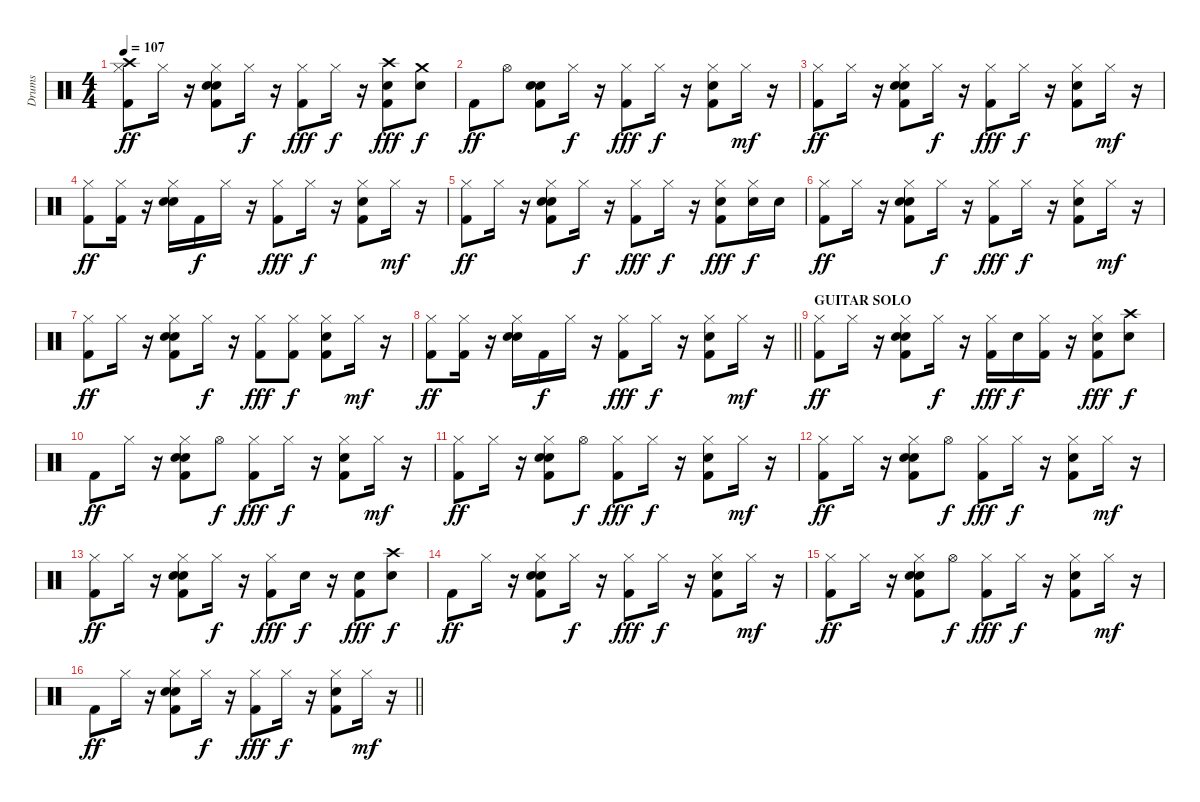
\track ("Drums" "Drums") {instrument percussion}
\staff {score}
\articulation defaults
\ts (4 4)
\tempo 107
\clef neutral
\ks c
("Kick (hit) 2" "Hi-Hat (closed)" "Crash high (hit)").8{dy ff} "Hi-Hat (closed)".16 r.16 ("Kick (hit) 2" "Electric Snare (hit)" "Electric Snare (hit)" "Hi-Hat (closed)").8 "Hi-Hat (closed)".16{dy f} r.16 ("Kick (hit) 2" "Hi-Hat (closed)").8{dy fff} "Hi-Hat (closed)".16{dy f} r.16 ("Kick (hit) 2" "Electric Snare (hit)" "Crash high (hit)").8{dy fff} ("Electric Snare (hit)" "Crash medium (hit)").8{dy f} |
"Kick (hit) 2".8{dy ff} "Hi-Hat (open)".8 ("Kick (hit) 2" "Electric Snare (hit)" "Electric Snare (hit)").8 "Hi-Hat (closed)".16{dy f} r.16 ("Kick (hit) 2" "Hi-Hat (closed)").8{dy fff} "Hi-Hat (closed)".16{dy f} r.16 ("Kick (hit) 2" "Electric Snare (hit)" "Hi-Hat (closed)").8 "Hi-Hat (closed)".16{dy mf} r.16 |
("Kick (hit) 2" "Hi-Hat (closed)").8{dy ff} "Hi-Hat (closed)".16 r.16 ("Kick (hit) 2" "Electric Snare (hit)" "Electric Snare (hit)" "Hi-Hat (closed)").8 "Hi-Hat (closed)".16{dy f} r.16 ("Kick (hit) 2" "Hi-Hat (closed)").8{dy fff} "Hi-Hat (closed)".16{dy f} r.16 ("Kick (hit) 2" "Electric Snare (hit)" "Hi-Hat (closed)").8 "Hi-Hat (closed)".16{dy mf} r.16 |
("Kick (hit) 2" "Hi-Hat (closed)").8{dy ff} ("Kick (hit) 2" "Hi-Hat (closed)").16 r.16 ("Electric Snare (hit)" "Electric Snare (hit)" "Hi-Hat (closed)").16 "Kick (hit) 2".16{dy f} "Hi-Hat (closed)".16 r.16 ("Kick (hit) 2" "Hi-Hat (closed)").8{dy fff} "Hi-Hat (closed)".16{dy f} r.16 ("Kick (hit) 2" "Electric Snare (hit)" "Hi-Hat (closed)").8 "Hi-Hat (closed)".16{dy mf} r.16 |
("Kick (hit) 2" "Hi-Hat (closed)").8{dy ff} "Hi-Hat (closed)".16 r.16 ("Kick (hit) 2" "Electric Snare (hit)" "Electric Snare (hit)" "Hi-Hat (closed)").8 "Hi-Hat (closed)".16{dy f} r.16 ("Kick (hit) 2" "Hi-Hat (closed)").8{dy fff} "Hi-Hat (closed)".16{dy f} r.16 ("Kick (hit) 2" "Electric Snare (hit)" "Hi-Hat (closed)").8{dy fff} ("Electric Snare (hit)" "Hi-Hat (closed)").16{dy f} "Electric Snare (hit)".16 |
("Kick (hit) 2" "Hi-Hat (closed)").8{dy ff} "Hi-Hat (closed)".16 r.16 ("Kick (hit) 2" "Electric Snare (hit)" "Electric Snare (hit)" "Hi-Hat (closed)").8 "Hi-Hat (closed)".16{dy f} r.16 ("Kick (hit) 2" "Hi-Hat (closed)").8{dy fff} "Hi-Hat (closed)".16{dy f} r.16 ("Kick (hit) 2" "Electric Snare (hit)" "Hi-Hat (closed)").8 "Hi-Hat (closed)".16{dy mf} r.16 |
("Kick (hit) 2" "Hi-Hat (closed)").8{dy ff} "Hi-Hat (closed)".16 r.16 ("Kick (hit) 2" "Electric Snare (hit)" "Electric Snare (hit)" "Hi-Hat (closed)").8 "Hi-Hat (closed)".16{dy f} r.16 ("Kick (hit) 2" "Hi-Hat (closed)").8{dy fff} ("Kick (hit) 2" "Hi-Hat (closed)").8{dy f} ("Kick (hit) 2" "Electric Snare (hit)" "Hi-Hat (closed)").8 "Hi-Hat (closed)".16{dy mf} r.16 |
\barLineRight lightlight
("Kick (hit) 2" "Hi-Hat (closed)").8{dy ff} ("Kick (hit) 2" "Hi-Hat (closed)").16 r.16 ("Electric Snare (hit)" "Electric Snare (hit)" "Hi-Hat (closed)").16 "Kick (hit) 2".16{dy f} "Hi-Hat (closed)".16 r.16 ("Kick (hit) 2" "Hi-Hat (closed)").8{dy fff} "Hi-Hat (closed)".16{dy f} r.16 ("Kick (hit) 2" "Electric Snare (hit)" "Hi-Hat (closed)").8 "Hi-Hat (closed)".16{dy mf} r.16 |
\section ("" "GUITAR SOLO")
("Kick (hit) 2" "Hi-Hat (closed)").8{dy ff} "Hi-Hat (closed)".16 r.16 ("Kick (hit) 2" "Electric Snare (hit)" "Electric Snare (hit)" "Hi-Hat (closed)").8 "Hi-Hat (closed)".16{dy f} r.16 ("Kick (hit) 2" "Hi-Hat (closed)").16{dy fff} "Electric Snare (hit)".16{dy f} ("Kick (hit) 2" "Hi-Hat (closed)").16 r.16 ("Kick (hit) 2" "Electric Snare (hit)" "Hi-Hat (closed)").8{dy fff} ("Electric Snare (hit)" "Crash high (hit)").8{dy f} |
"Kick (hit) 2".8{dy ff} "Hi-Hat (closed)".16 r.16 ("Kick (hit) 2" "Electric Snare (hit)" "Electric Snare (hit)" "Hi-Hat (closed)").8 "Hi-Hat (open)".8{dy f} ("Kick (hit) 2" "Hi-Hat (closed)").8{dy fff} "Hi-Hat (closed)".16{dy f} r.16 ("Kick (hit) 2" "Electric Snare (hit)" "Hi-Hat (closed)").8 "Hi-Hat (closed)".16{dy mf} r.16 |
("Kick (hit) 2" "Hi-Hat (closed)").8{dy ff} "Hi-Hat (closed)".16 r.16 ("Kick (hit) 2" "Electric Snare (hit)" "Electric Snare (hit)" "Hi-Hat (closed)").8 "Hi-Hat (open)".8{dy f} ("Kick (hit) 2" "Hi-Hat (closed)").8{dy fff} "Hi-Hat (closed)".16{dy f} r.16 ("Kick (hit) 2" "Electric Snare (hit)" "Hi-Hat (closed)").8 "Hi-Hat (closed)".16{dy mf} r.16 |
("Kick (hit) 2" "Hi-Hat (closed)").8{dy ff} "Hi-Hat (closed)".16 r.16 ("Kick (hit) 2" "Electric Snare (hit)" "Electric Snare (hit)" "Hi-Hat (closed)").8 "Hi-Hat (open)".8{dy f} ("Kick (hit) 2" "Hi-Hat (closed)").8{dy fff} "Hi-Hat (closed)".16{dy f} r.16 ("Kick (hit) 2" "Electric Snare (hit)" "Hi-Hat (closed)").8 "Hi-Hat (closed)".16{dy mf} r.16 |
("Kick (hit) 2" "Hi-Hat (closed)").8{dy ff} "Hi-Hat (closed)".16 r.16 ("Kick (hit) 2" "Electric Snare (hit)" "Electric Snare (hit)" "Hi-Hat (closed)").8 "Hi-Hat (closed)".16{dy f} r.16 ("Kick (hit) 2" "Hi-Hat (closed)").8{dy fff} "Electric Snare (hit)".16{dy f} r.16 ("Kick (hit) 2" "Electric Snare (hit)").8{dy fff} ("Electric Snare (hit)" "Crash high (hit)").8{dy f} |
"Kick (hit) 2".8{dy ff} "Hi-Hat (closed)".16 r.16 ("Kick (hit) 2" "Electric Snare (hit)" "Electric Snare (hit)" "Hi-Hat (closed)").8 "Hi-Hat (closed)".16{dy f} r.16 ("Kick (hit) 2" "Hi-Hat (closed)").8{dy fff} "Hi-Hat (closed)".16{dy f} r.16 ("Kick (hit) 2" "Electric Snare (hit)" "Hi-Hat (closed)").8 "Hi-Hat (closed)".16{dy mf} r.16 |
("Kick (hit) 2" "Hi-Hat (closed)").8{dy ff} "Hi-Hat (closed)".16 r.16 ("Kick (hit) 2" "Electric Snare (hit)" "Electric Snare (hit)" "Hi-Hat (closed)").8 "Hi-Hat (open)".8{dy f} ("Kick (hit) 2" "Hi-Hat (closed)").8{dy fff} "Hi-Hat (closed)".16{dy f} r.16 ("Kick (hit) 2" "Electric Snare (hit)" "Hi-Hat (closed)").8 "Hi-Hat (closed)".16{dy mf} r.16 |
\barLineRight lightlight "Kick (hit) 2".8{dy ff} "Hi-Hat (closed)".16
r.16 ("Kick (hit) 2" "Electric Snare (hit)" "Electric Snare (hit)" "Hi-Hat (closed)").8 "Hi-Hat (closed)".16{dy f} r.16 ("Kick (hit) 2" "Hi-Hat (closed)").8{dy fff} "Hi-Hat (closed)".16{dy f} r.16 ("Kick (hit) 2" "Electric Snare (hit)" "Hi-Hat (closed)").8 "Hi-Hat (closed)".16{dy mf} r.16
